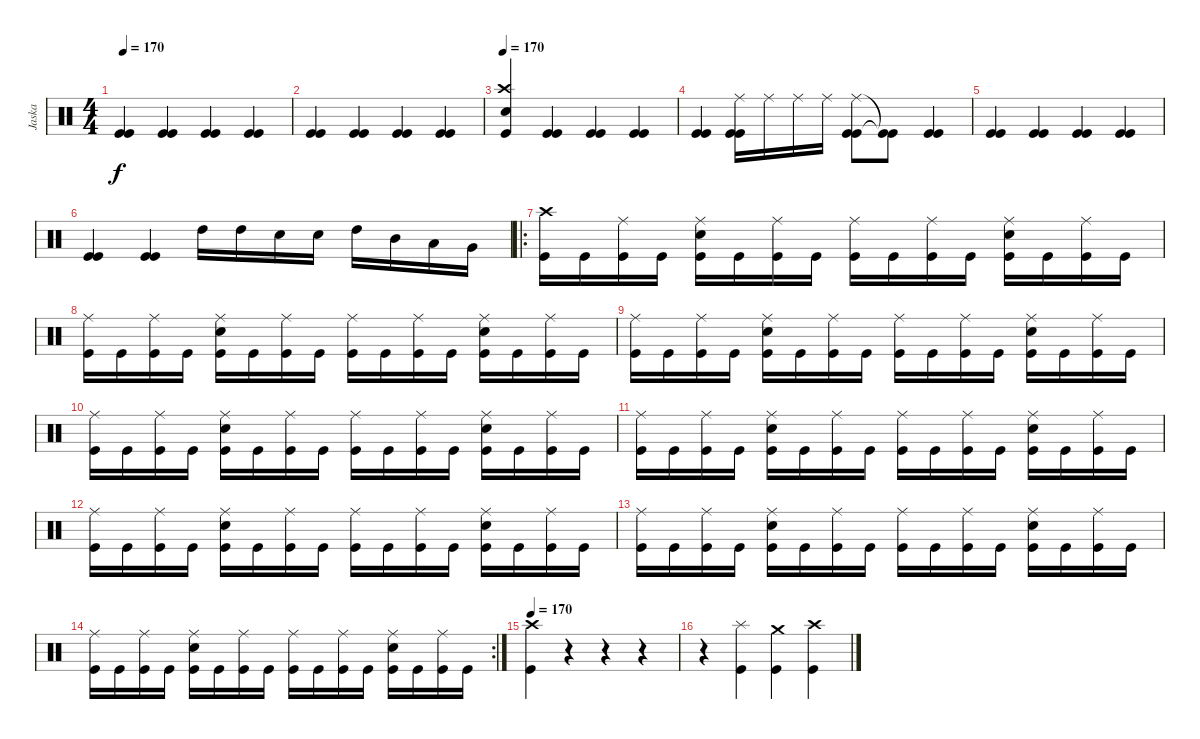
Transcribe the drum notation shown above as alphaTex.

\track ("Jaska" "Jaska") {instrument percussion}
\staff {score}
\articulation defaults
\ts (4 4)
\tempo 170
\clef neutral
\ks c
("Kick (hit)" "Kick (hit)").4{dy f} ("Kick (hit)" "Kick (hit)").4 ("Kick (hit)" "Kick (hit)").4 ("Kick (hit)" "Kick (hit)").4 |
("Kick (hit)" "Kick (hit)").4 ("Kick (hit)" "Kick (hit)").4 ("Kick (hit)" "Kick (hit)").4 ("Kick (hit)" "Kick (hit)").4 |
\tempo 170
("Crash high (hit)" "Snare (hit) 2" "Kick (hit)").4 ("Kick (hit)" "Kick (hit)").4 ("Kick (hit)" "Kick (hit)").4 ("Kick (hit)" "Kick (hit)").4 |
("Kick (hit)" "Kick (hit)").4 ("Ride (middle)" "Kick (hit)" "Kick (hit)").16 "Ride (middle)".16 "Ride (middle)".16 "Ride (middle)".16 ("Ride (middle)" "Kick (hit)" "Kick (hit)").8 ("Kick (hit)"{t} "Kick (hit)"{t}).8 ("Kick (hit)" "Kick (hit)").4 |
("Kick (hit)" "Kick (hit)").4 ("Kick (hit)" "Kick (hit)").4 ("Kick (hit)" "Kick (hit)").4 ("Kick (hit)" "Kick (hit)").4 |
("Kick (hit)" "Kick (hit)").4 ("Kick (hit)" "Kick (hit)").4 "High Tom (hit)".16 "High Tom (hit)".16 "Snare (hit) 2".16 "Snare (hit) 2".16 "High Tom (hit)".16 "Mid Tom (hit)".16 "Low Tom (hit)".16 "Very Low Tom (hit)".16 |
\ro
("Crash high (hit)" "Kick (hit)").16 "Kick (hit)".16 ("Ride (middle)" "Kick (hit)").16 "Kick (hit)".16 ("Ride (middle)" "Snare (hit) 2" "Kick (hit)").16 "Kick (hit)".16 ("Ride (middle)" "Kick (hit)").16 "Kick (hit)".16 ("Ride (middle)" "Kick (hit)").16 "Kick (hit)".16 ("Ride (middle)" "Kick (hit)").16 "Kick (hit)".16 ("Ride (middle)" "Snare (hit) 2" "Kick (hit)").16 "Kick (hit)".16 ("Ride (middle)" "Kick (hit)").16 "Kick (hit)".16 |
("Ride (middle)" "Kick (hit)").16 "Kick (hit)".16 ("Ride (middle)" "Kick (hit)").16 "Kick (hit)".16 ("Ride (middle)" "Snare (hit) 2" "Kick (hit)").16 "Kick (hit)".16 ("Ride (middle)" "Kick (hit)").16 "Kick (hit)".16 ("Ride (middle)" "Kick (hit)").16 "Kick (hit)".16 ("Ride (middle)" "Kick (hit)").16 "Kick (hit)".16 ("Ride (middle)" "Snare (hit) 2" "Kick (hit)").16 "Kick (hit)".16 ("Ride (middle)" "Kick (hit)").16 "Kick (hit)".16 |
("Ride (middle)" "Kick (hit)").16 "Kick (hit)".16 ("Ride (middle)" "Kick (hit)").16 "Kick (hit)".16 ("Ride (middle)" "Snare (hit) 2" "Kick (hit)").16 "Kick (hit)".16 ("Ride (middle)" "Kick (hit)").16 "Kick (hit)".16 ("Ride (middle)" "Kick (hit)").16 "Kick (hit)".16 ("Ride (middle)" "Kick (hit)").16 "Kick (hit)".16 ("Ride (middle)" "Snare (hit) 2" "Kick (hit)").16 "Kick (hit)".16 ("Ride (middle)" "Kick (hit)").16 "Kick (hit)".16 |
("Ride (middle)" "Kick (hit)").16 "Kick (hit)".16 ("Ride (middle)" "Kick (hit)").16 "Kick (hit)".16 ("Ride (middle)" "Snare (hit) 2" "Kick (hit)").16 "Kick (hit)".16 ("Ride (middle)" "Kick (hit)").16 "Kick (hit)".16 ("Ride (middle)" "Kick (hit)").16 "Kick (hit)".16 ("Ride (middle)" "Kick (hit)").16 "Kick (hit)".16 ("Ride (middle)" "Snare (hit) 2" "Kick (hit)").16 "Kick (hit)".16 ("Ride (middle)" "Kick (hit)").16 "Kick (hit)".16 |
("Ride (middle)" "Kick (hit)").16 "Kick (hit)".16 ("Ride (middle)" "Kick (hit)").16 "Kick (hit)".16 ("Ride (middle)" "Snare (hit) 2" "Kick (hit)").16 "Kick (hit)".16 ("Ride (middle)" "Kick (hit)").16 "Kick (hit)".16 ("Ride (middle)" "Kick (hit)").16 "Kick (hit)".16 ("Ride (middle)" "Kick (hit)").16 "Kick (hit)".16 ("Ride (middle)" "Snare (hit) 2" "Kick (hit)").16 "Kick (hit)".16 ("Ride (middle)" "Kick (hit)").16 "Kick (hit)".16 |
("Ride (middle)" "Kick (hit)").16 "Kick (hit)".16 ("Ride (middle)" "Kick (hit)").16 "Kick (hit)".16 ("Ride (middle)" "Snare (hit) 2" "Kick (hit)").16 "Kick (hit)".16 ("Ride (middle)" "Kick (hit)").16 "Kick (hit)".16 ("Ride (middle)" "Kick (hit)").16 "Kick (hit)".16 ("Ride (middle)" "Kick (hit)").16 "Kick (hit)".16 ("Ride (middle)" "Snare (hit) 2" "Kick (hit)").16 "Kick (hit)".16 ("Ride (middle)" "Kick (hit)").16 "Kick (hit)".16 |
("Ride (middle)" "Kick (hit)").16 "Kick (hit)".16 ("Ride (middle)" "Kick (hit)").16 "Kick (hit)".16 ("Ride (middle)" "Snare (hit) 2" "Kick (hit)").16 "Kick (hit)".16 ("Ride (middle)" "Kick (hit)").16 "Kick (hit)".16 ("Ride (middle)" "Kick (hit)").16 "Kick (hit)".16 ("Ride (middle)" "Kick (hit)").16 "Kick (hit)".16 ("Ride (middle)" "Snare (hit) 2" "Kick (hit)").16 "Kick (hit)".16 ("Ride (middle)" "Kick (hit)").16 "Kick (hit)".16 |
\rc 2
("Ride (middle)" "Kick (hit)").16 "Kick (hit)".16 ("Ride (middle)" "Kick (hit)").16 "Kick (hit)".16 ("Ride (middle)" "Snare (hit) 2" "Kick (hit)").16 "Kick (hit)".16 ("Ride (middle)" "Kick (hit)").16 "Kick (hit)".16 ("Ride (middle)" "Kick (hit)").16 "Kick (hit)".16 ("Ride (middle)" "Kick (hit)").16 "Kick (hit)".16 ("Ride (middle)" "Snare (hit) 2" "Kick (hit)").16 "Kick (hit)".16 ("Ride (middle)" "Kick (hit)").16 "Kick (hit)".16 |
\tempo 170
("Crash high (hit)" "Kick (hit)").4 r.4 r.4 r.4 |
r.4 ("Splash (hit)" "Kick (hit)").4 ("Crash medium (hit)" "Kick (hit)").4 ("Crash high (hit)" "Kick (hit)").4
